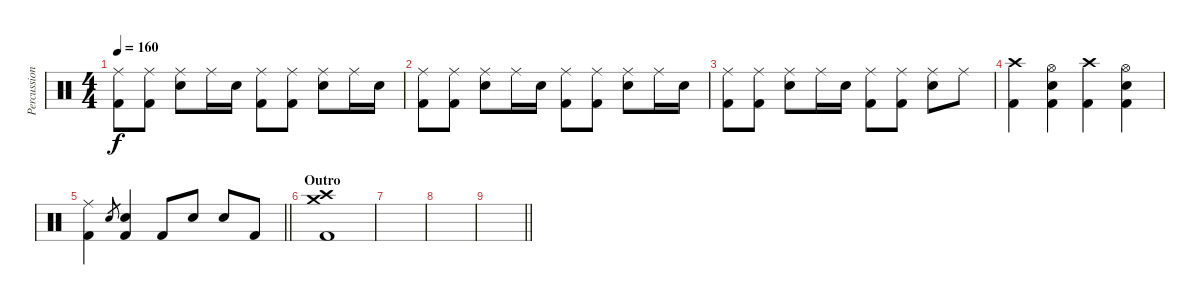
\track ("Percussion" "Percussion") {instrument percussion}
\staff {score}
\articulation defaults
\ts (4 4)
\tempo 160
\clef neutral
\ks c
("Ride (middle)" "Kick (hit) 2").8{dy f} ("Ride (middle)" "Kick (hit) 2").8 ("Ride (middle)" "Electric Snare (hit)").8 "Ride (middle)".16 "Electric Snare (hit)".16 ("Ride (middle)" "Kick (hit) 2").8 ("Ride (middle)" "Kick (hit) 2").8 ("Ride (middle)" "Electric Snare (hit)").8 "Ride (middle)".16 "Electric Snare (hit)".16 |
("Ride (middle)" "Kick (hit) 2").8 ("Ride (middle)" "Kick (hit) 2").8 ("Ride (middle)" "Electric Snare (hit)").8 "Ride (middle)".16 "Electric Snare (hit)".16 ("Ride (middle)" "Kick (hit) 2").8 ("Ride (middle)" "Kick (hit) 2").8 ("Ride (middle)" "Electric Snare (hit)").8 "Ride (middle)".16 "Electric Snare (hit)".16 |
("Ride (middle)" "Kick (hit) 2").8 ("Ride (middle)" "Kick (hit) 2").8 ("Ride (middle)" "Electric Snare (hit)").8 "Ride (middle)".16 "Electric Snare (hit)".16 ("Ride (middle)" "Kick (hit) 2").8 ("Ride (middle)" "Kick (hit) 2").8 ("Ride (middle)" "Electric Snare (hit)").8 "Ride (middle)".8 |
("Crash high (hit)" "Kick (hit) 2").4 ("Hi-Hat (open)" "Electric Snare (hit)" "Kick (hit) 2").4 ("Crash high (hit)" "Kick (hit) 2").4 ("Hi-Hat (open)" "Electric Snare (hit)" "Kick (hit) 2").4 |
\barLineRight lightlight
("Ride (middle)" "Kick (hit) 2").4 "Electric Snare (hit)".8{gr} ("Electric Snare (hit)" "Kick (hit) 2").4 "Kick (hit) 2".8 "Electric Snare (hit)".8 "Electric Snare (hit)".8 "Kick (hit) 2".8 |
\section ("" "Outro")
("Crash high (hit)" "Crash medium (hit)" "Kick (hit) 2").1 |
|
|
\barLineRight lightlight
